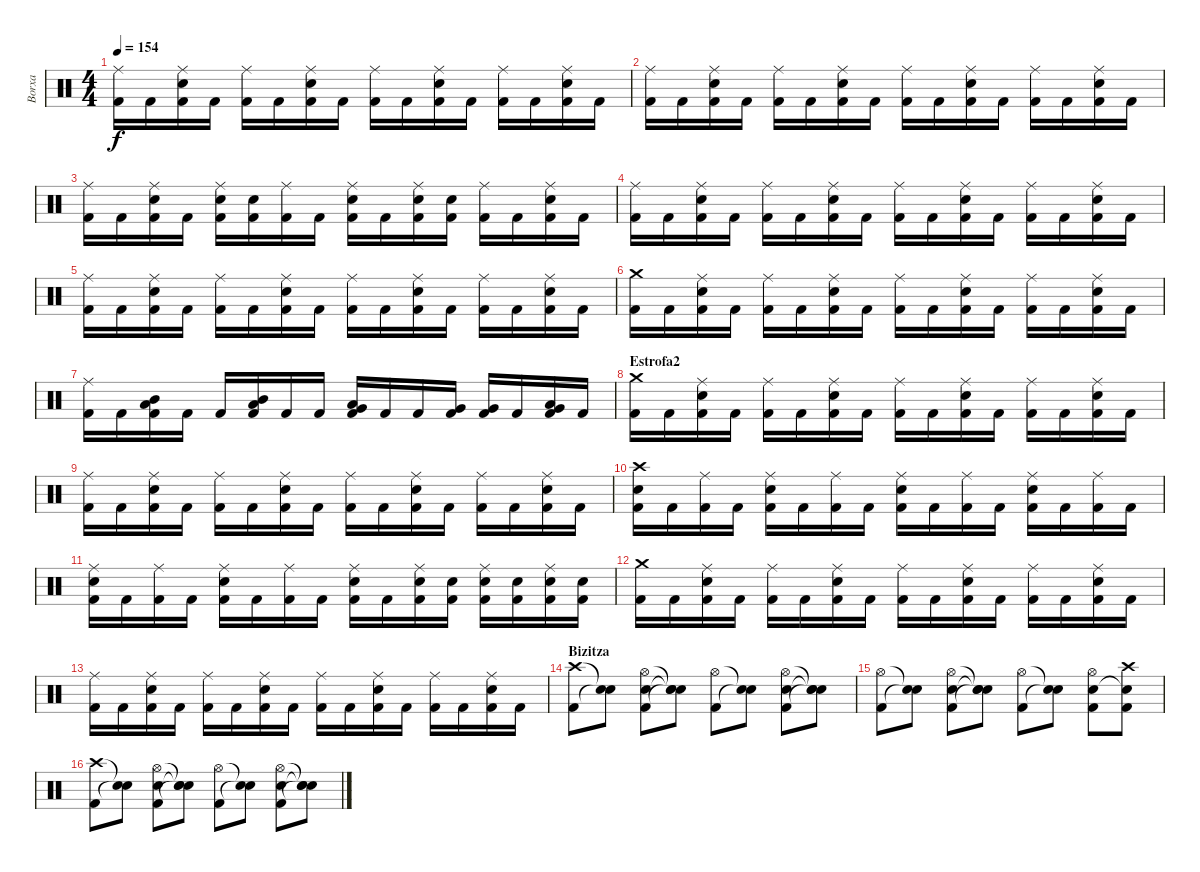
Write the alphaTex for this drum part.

\track ("Borxa" "Borxa") {instrument percussion}
\staff {score}
\articulation defaults
\ts (4 4)
\tempo 154
\clef neutral
\ks c
("Ride (middle)" "Kick (hit) 2").16{dy f} "Kick (hit) 2".16 ("Ride (middle)" "Electric Snare (hit)" "Kick (hit) 2").16 "Kick (hit) 2".16 ("Ride (middle)" "Kick (hit) 2").16 "Kick (hit) 2".16 ("Ride (middle)" "Electric Snare (hit)" "Kick (hit) 2").16 "Kick (hit) 2".16 ("Ride (middle)" "Kick (hit) 2").16 "Kick (hit) 2".16 ("Ride (middle)" "Electric Snare (hit)" "Kick (hit) 2").16 "Kick (hit) 2".16 ("Ride (middle)" "Kick (hit) 2").16 "Kick (hit) 2".16 ("Ride (middle)" "Electric Snare (hit)" "Kick (hit) 2").16 "Kick (hit) 2".16 |
("Ride (middle)" "Kick (hit) 2").16 "Kick (hit) 2".16 ("Ride (middle)" "Electric Snare (hit)" "Kick (hit) 2").16 "Kick (hit) 2".16 ("Ride (middle)" "Kick (hit) 2").16 "Kick (hit) 2".16 ("Ride (middle)" "Electric Snare (hit)" "Kick (hit) 2").16 "Kick (hit) 2".16 ("Ride (middle)" "Kick (hit) 2").16 "Kick (hit) 2".16 ("Ride (middle)" "Electric Snare (hit)" "Kick (hit) 2").16 "Kick (hit) 2".16 ("Ride (middle)" "Kick (hit) 2").16 "Kick (hit) 2".16 ("Ride (middle)" "Electric Snare (hit)" "Kick (hit) 2").16 "Kick (hit) 2".16 |
("Ride (middle)" "Kick (hit) 2").16 "Kick (hit) 2".16 ("Ride (middle)" "Electric Snare (hit)" "Kick (hit) 2").16 "Kick (hit) 2".16 ("Ride (middle)" "Electric Snare (hit)" "Kick (hit) 2").16 ("Electric Snare (hit)" "Kick (hit) 2").16 ("Ride (middle)" "Kick (hit) 2").16 "Kick (hit) 2".16 ("Ride (middle)" "Electric Snare (hit)" "Kick (hit) 2").16 "Kick (hit) 2".16 ("Ride (middle)" "Electric Snare (hit)" "Kick (hit) 2").16 ("Electric Snare (hit)" "Kick (hit) 2").16 ("Ride (middle)" "Kick (hit) 2").16 "Kick (hit) 2".16 ("Ride (middle)" "Electric Snare (hit)" "Kick (hit) 2").16 "Kick (hit) 2".16 |
("Ride (middle)" "Kick (hit) 2").16 "Kick (hit) 2".16 ("Ride (middle)" "Electric Snare (hit)" "Kick (hit) 2").16 "Kick (hit) 2".16 ("Ride (middle)" "Kick (hit) 2").16 "Kick (hit) 2".16 ("Ride (middle)" "Electric Snare (hit)" "Kick (hit) 2").16 "Kick (hit) 2".16 ("Ride (middle)" "Kick (hit) 2").16 "Kick (hit) 2".16 ("Ride (middle)" "Electric Snare (hit)" "Kick (hit) 2").16 "Kick (hit) 2".16 ("Ride (middle)" "Kick (hit) 2").16 "Kick (hit) 2".16 ("Ride (middle)" "Electric Snare (hit)" "Kick (hit) 2").16 "Kick (hit) 2".16 |
("Ride (middle)" "Kick (hit) 2").16 "Kick (hit) 2".16 ("Ride (middle)" "Electric Snare (hit)" "Kick (hit) 2").16 "Kick (hit) 2".16 ("Ride (middle)" "Kick (hit) 2").16 "Kick (hit) 2".16 ("Ride (middle)" "Electric Snare (hit)" "Kick (hit) 2").16 "Kick (hit) 2".16 ("Ride (middle)" "Kick (hit) 2").16 "Kick (hit) 2".16 ("Ride (middle)" "Electric Snare (hit)" "Kick (hit) 2").16 "Kick (hit) 2".16 ("Ride (middle)" "Kick (hit) 2").16 "Kick (hit) 2".16 ("Ride (middle)" "Electric Snare (hit)" "Kick (hit) 2").16 "Kick (hit) 2".16 |
("Crash medium (hit)" "Kick (hit) 2").16 "Kick (hit) 2".16 ("Ride (middle)" "Electric Snare (hit)" "Kick (hit) 2").16 "Kick (hit) 2".16 ("Ride (middle)" "Kick (hit) 2").16 "Kick (hit) 2".16 ("Ride (middle)" "Electric Snare (hit)" "Kick (hit) 2").16 "Kick (hit) 2".16 ("Ride (middle)" "Kick (hit) 2").16 "Kick (hit) 2".16 ("Ride (middle)" "Electric Snare (hit)" "Kick (hit) 2").16 "Kick (hit) 2".16 ("Ride (middle)" "Kick (hit) 2").16 "Kick (hit) 2".16 ("Ride (middle)" "Electric Snare (hit)" "Kick (hit) 2").16 "Kick (hit) 2".16 |
("Ride (middle)" "Kick (hit) 2").16 "Kick (hit) 2".16 ("Mid Tom (hit)" "Low Tom (hit)" "Kick (hit) 2").16 "Kick (hit) 2".16 "Kick (hit) 2".16 ("Mid Tom (hit)" "Low Tom (hit)" "Kick (hit) 2").16 "Kick (hit) 2".16 "Kick (hit) 2".16 ("Low Tom (hit)" "Very Low Tom (hit)" "Kick (hit) 2").16 "Kick (hit) 2".16 "Kick (hit) 2".16 ("Very Low Tom (hit)" "Kick (hit) 2").16 ("Very Low Tom (hit)" "Kick (hit) 2").16 "Kick (hit) 2".16 ("Very Low Tom (hit)" "Low Floor Tom (hit)" "Kick (hit) 2").16 "Kick (hit) 2".16 |
\section ("" "Estrofa2")
("Crash medium (hit)" "Kick (hit) 2").16 "Kick (hit) 2".16 ("Ride (middle)" "Electric Snare (hit)" "Kick (hit) 2").16 "Kick (hit) 2".16 ("Ride (middle)" "Kick (hit) 2").16 "Kick (hit) 2".16 ("Ride (middle)" "Electric Snare (hit)" "Kick (hit) 2").16 "Kick (hit) 2".16 ("Ride (middle)" "Kick (hit) 2").16 "Kick (hit) 2".16 ("Ride (middle)" "Electric Snare (hit)" "Kick (hit) 2").16 "Kick (hit) 2".16 ("Ride (middle)" "Kick (hit) 2").16 "Kick (hit) 2".16 ("Ride (middle)" "Electric Snare (hit)" "Kick (hit) 2").16 "Kick (hit) 2".16 |
("Ride (middle)" "Kick (hit) 2").16 "Kick (hit) 2".16 ("Ride (middle)" "Electric Snare (hit)" "Kick (hit) 2").16 "Kick (hit) 2".16 ("Ride (middle)" "Kick (hit) 2").16 "Kick (hit) 2".16 ("Ride (middle)" "Electric Snare (hit)" "Kick (hit) 2").16 "Kick (hit) 2".16 ("Ride (middle)" "Kick (hit) 2").16 "Kick (hit) 2".16 ("Ride (middle)" "Electric Snare (hit)" "Kick (hit) 2").16 "Kick (hit) 2".16 ("Ride (middle)" "Kick (hit) 2").16 "Kick (hit) 2".16 ("Ride (middle)" "Electric Snare (hit)" "Kick (hit) 2").16 "Kick (hit) 2".16 |
("Crash high (hit)" "Electric Snare (hit)" "Kick (hit) 2").16 "Kick (hit) 2".16 ("Ride (middle)" "Kick (hit) 2").16 "Kick (hit) 2".16 ("Ride (middle)" "Electric Snare (hit)" "Kick (hit) 2").16 "Kick (hit) 2".16 ("Ride (middle)" "Kick (hit) 2").16 "Kick (hit) 2".16 ("Ride (middle)" "Electric Snare (hit)" "Kick (hit) 2").16 "Kick (hit) 2".16 ("Ride (middle)" "Kick (hit) 2").16 "Kick (hit) 2".16 ("Ride (middle)" "Electric Snare (hit)" "Kick (hit) 2").16 "Kick (hit) 2".16 ("Ride (middle)" "Kick (hit) 2").16 "Kick (hit) 2".16 |
("Ride (middle)" "Electric Snare (hit)" "Kick (hit) 2").16 "Kick (hit) 2".16 ("Ride (middle)" "Kick (hit) 2").16 "Kick (hit) 2".16 ("Ride (middle)" "Electric Snare (hit)" "Kick (hit) 2").16 "Kick (hit) 2".16 ("Ride (middle)" "Kick (hit) 2").16 "Kick (hit) 2".16 ("Ride (middle)" "Electric Snare (hit)" "Kick (hit) 2").16 "Kick (hit) 2".16 ("Ride (middle)" "Electric Snare (hit)" "Kick (hit) 2").16 ("Electric Snare (hit)" "Kick (hit) 2").16 ("Ride (middle)" "Electric Snare (hit)" "Kick (hit) 2").16 ("Electric Snare (hit)" "Kick (hit) 2").16 ("Ride (middle)" "Electric Snare (hit)" "Kick (hit) 2").16 ("Electric Snare (hit)" "Kick (hit) 2").16 |
("Crash medium (hit)" "Kick (hit) 2").16 "Kick (hit) 2".16 ("Ride (middle)" "Electric Snare (hit)" "Kick (hit) 2").16 "Kick (hit) 2".16 ("Ride (middle)" "Kick (hit) 2").16 "Kick (hit) 2".16 ("Ride (middle)" "Electric Snare (hit)" "Kick (hit) 2").16 "Kick (hit) 2".16 ("Ride (middle)" "Kick (hit) 2").16 "Kick (hit) 2".16 ("Ride (middle)" "Electric Snare (hit)" "Kick (hit) 2").16 "Kick (hit) 2".16 ("Ride (middle)" "Kick (hit) 2").16 "Kick (hit) 2".16 ("Ride (middle)" "Electric Snare (hit)" "Kick (hit) 2").16 "Kick (hit) 2".16 |
("Ride (middle)" "Kick (hit) 2").16 "Kick (hit) 2".16 ("Ride (middle)" "Electric Snare (hit)" "Kick (hit) 2").16 "Kick (hit) 2".16 ("Ride (middle)" "Kick (hit) 2").16 "Kick (hit) 2".16 ("Ride (middle)" "Electric Snare (hit)" "Kick (hit) 2").16 "Kick (hit) 2".16 ("Ride (middle)" "Kick (hit) 2").16 "Kick (hit) 2".16 ("Ride (middle)" "Electric Snare (hit)" "Kick (hit) 2").16 "Kick (hit) 2".16 ("Ride (middle)" "Kick (hit) 2").16 "Kick (hit) 2".16 ("Ride (middle)" "Electric Snare (hit)" "Kick (hit) 2").16 "Kick (hit) 2".16 |
\section ("" "Bizitza")
("Crash high (hit)" "Kick (hit) 2").8 ("Snare (hit)"{t} "Snare (hit)"{t}).8 ("Hi-Hat (open)" "Electric Snare (hit)" "Kick (hit) 2").8 ("Snare (hit)"{t} "Snare (hit)"{t} "Snare (hit)"{t}).8 ("Hi-Hat (open)" "Kick (hit) 2").8 ("Snare (hit)"{t} "Snare (hit)"{t}).8 ("Hi-Hat (open)" "Electric Snare (hit)" "Kick (hit) 2").8 ("Snare (hit)"{t} "Snare (hit)"{t} "Snare (hit)"{t}).8 |
("Hi-Hat (open)" "Kick (hit) 2").8 ("Snare (hit)"{t} "Snare (hit)"{t}).8 ("Hi-Hat (open)" "Electric Snare (hit)" "Kick (hit) 2").8 ("Snare (hit)"{t} "Snare (hit)"{t} "Snare (hit)"{t}).8 ("Hi-Hat (open)" "Kick (hit) 2").8 ("Snare (hit)"{t} "Snare (hit)"{t}).8 ("Hi-Hat (open)" "Electric Snare (hit)" "Kick (hit) 2").8 ("Crash high (hit)" "Snare (hit)"{t} "Kick (hit) 2").8 |
("Crash high (hit)" "Kick (hit) 2").8 ("Snare (hit)"{t} "Snare (hit)"{t}).8 ("Hi-Hat (open)" "Electric Snare (hit)" "Kick (hit) 2").8 ("Snare (hit)"{t} "Snare (hit)"{t} "Snare (hit)"{t}).8 ("Hi-Hat (open)" "Kick (hit) 2").8 ("Snare (hit)"{t} "Snare (hit)"{t}).8 ("Hi-Hat (open)" "Electric Snare (hit)" "Kick (hit) 2").8 ("Snare (hit)"{t} "Snare (hit)"{t} "Snare (hit)"{t}).8
